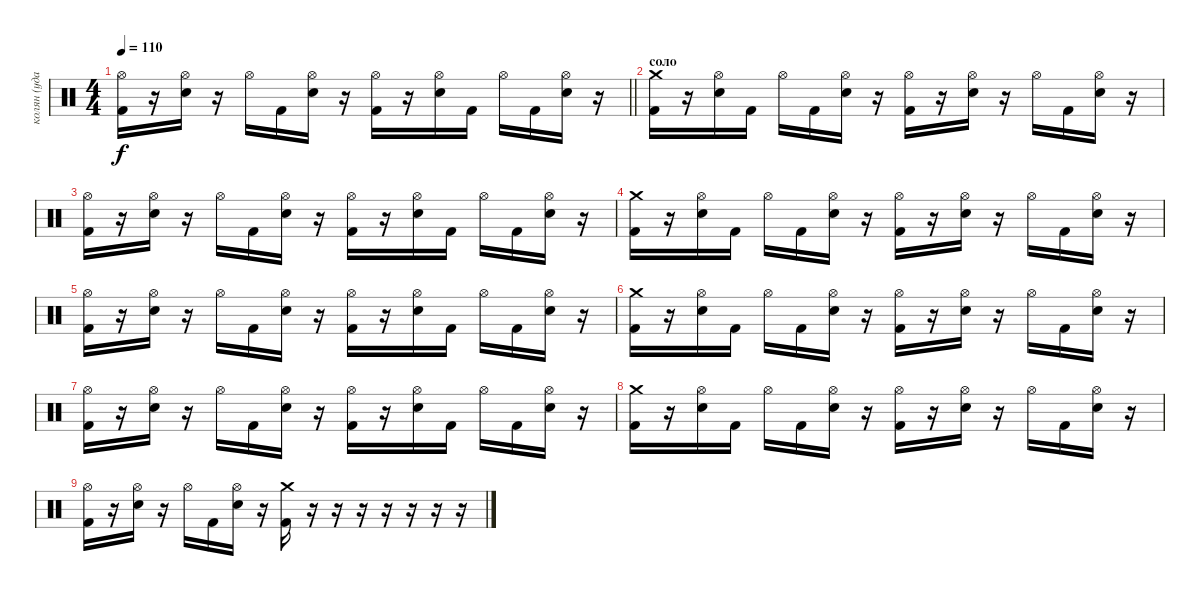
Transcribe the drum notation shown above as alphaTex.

\track ("колян (ударные)" "колян (уда") {instrument percussion}
\staff {score}
\articulation defaults
\ts (4 4)
\tempo 110
\clef neutral
\barLineRight lightlight
\ks c
("Kick (hit) 2" "Hi-Hat (open)").16{dy f} r.16 ("Snare (hit) 2" "Hi-Hat (open)").16 r.16 "Hi-Hat (open)".16 "Kick (hit) 2".16 ("Snare (hit) 2" "Hi-Hat (open)").16 r.16 ("Kick (hit) 2" "Hi-Hat (open)").16 r.16 ("Snare (hit) 2" "Hi-Hat (open)").16 "Kick (hit) 2".16 "Hi-Hat (open)".16 "Kick (hit) 2".16 ("Snare (hit) 2" "Hi-Hat (open)").16 r.16 |
\section ("" "соло")
("Kick (hit) 2" "Crash medium (hit)").16 r.16 ("Snare (hit) 2" "Hi-Hat (open)").16 "Kick (hit) 2".16 "Hi-Hat (open)".16 "Kick (hit) 2".16 ("Snare (hit) 2" "Hi-Hat (open)").16 r.16 ("Kick (hit) 2" "Hi-Hat (open)").16 r.16 ("Snare (hit) 2" "Hi-Hat (open)").16 r.16 "Hi-Hat (open)".16 "Kick (hit) 2".16 ("Snare (hit) 2" "Hi-Hat (open)").16 r.16 |
("Kick (hit) 2" "Hi-Hat (open)").16 r.16 ("Snare (hit) 2" "Hi-Hat (open)").16 r.16 "Hi-Hat (open)".16 "Kick (hit) 2".16 ("Snare (hit) 2" "Hi-Hat (open)").16 r.16 ("Kick (hit) 2" "Hi-Hat (open)").16 r.16 ("Snare (hit) 2" "Hi-Hat (open)").16 "Kick (hit) 2".16 "Hi-Hat (open)".16 "Kick (hit) 2".16 ("Snare (hit) 2" "Hi-Hat (open)").16 r.16 |
("Kick (hit) 2" "Crash medium (hit)").16 r.16 ("Snare (hit) 2" "Hi-Hat (open)").16 "Kick (hit) 2".16 "Hi-Hat (open)".16 "Kick (hit) 2".16 ("Snare (hit) 2" "Hi-Hat (open)").16 r.16 ("Kick (hit) 2" "Hi-Hat (open)").16 r.16 ("Snare (hit) 2" "Hi-Hat (open)").16 r.16 "Hi-Hat (open)".16 "Kick (hit) 2".16 ("Snare (hit) 2" "Hi-Hat (open)").16 r.16 |
("Kick (hit) 2" "Hi-Hat (open)").16 r.16 ("Snare (hit) 2" "Hi-Hat (open)").16 r.16 "Hi-Hat (open)".16 "Kick (hit) 2".16 ("Snare (hit) 2" "Hi-Hat (open)").16 r.16 ("Kick (hit) 2" "Hi-Hat (open)").16 r.16 ("Snare (hit) 2" "Hi-Hat (open)").16 "Kick (hit) 2".16 "Hi-Hat (open)".16 "Kick (hit) 2".16 ("Snare (hit) 2" "Hi-Hat (open)").16 r.16 |
("Kick (hit) 2" "Crash medium (hit)").16 r.16 ("Snare (hit) 2" "Hi-Hat (open)").16 "Kick (hit) 2".16 "Hi-Hat (open)".16 "Kick (hit) 2".16 ("Snare (hit) 2" "Hi-Hat (open)").16 r.16 ("Kick (hit) 2" "Hi-Hat (open)").16 r.16 ("Snare (hit) 2" "Hi-Hat (open)").16 r.16 "Hi-Hat (open)".16 "Kick (hit) 2".16 ("Snare (hit) 2" "Hi-Hat (open)").16 r.16 |
("Kick (hit) 2" "Hi-Hat (open)").16 r.16 ("Snare (hit) 2" "Hi-Hat (open)").16 r.16 "Hi-Hat (open)".16 "Kick (hit) 2".16 ("Snare (hit) 2" "Hi-Hat (open)").16 r.16 ("Kick (hit) 2" "Hi-Hat (open)").16 r.16 ("Snare (hit) 2" "Hi-Hat (open)").16 "Kick (hit) 2".16 "Hi-Hat (open)".16 "Kick (hit) 2".16 ("Snare (hit) 2" "Hi-Hat (open)").16 r.16 |
("Kick (hit) 2" "Crash medium (hit)").16 r.16 ("Snare (hit) 2" "Hi-Hat (open)").16 "Kick (hit) 2".16 "Hi-Hat (open)".16 "Kick (hit) 2".16 ("Snare (hit) 2" "Hi-Hat (open)").16 r.16 ("Kick (hit) 2" "Hi-Hat (open)").16 r.16 ("Snare (hit) 2" "Hi-Hat (open)").16 r.16 "Hi-Hat (open)".16 "Kick (hit) 2".16 ("Snare (hit) 2" "Hi-Hat (open)").16 r.16 |
("Kick (hit) 2" "Hi-Hat (open)").16 r.16 ("Snare (hit) 2" "Hi-Hat (open)").16 r.16 "Hi-Hat (open)".16 "Kick (hit) 2".16 ("Snare (hit) 2" "Hi-Hat (open)").16 r.16 ("Kick (hit) 2" "Crash medium (hit)").16 r.16 r.16 r.16 r.16 r.16 r.16 r.16
